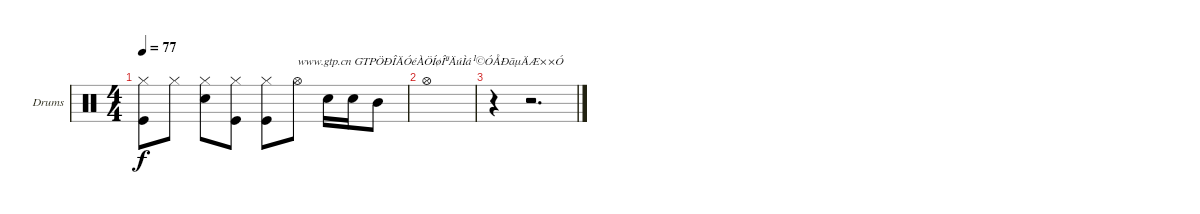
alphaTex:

\bracketExtendMode groupsimilarinstruments
\firstSystemTrackNameOrientation horizontal
\otherSystemsTrackNameOrientation horizontal
\track ("Drumkit" "Drums") {instrument percussion}
\staff {score}
\articulation defaults
\ts (4 4)
\tempo 77
\clef neutral
\ks c
("Hi-Hat (closed)" "Kick (hit)").8{dy f} "Hi-Hat (closed)".8 ("Hi-Hat (closed)" "Snare (hit) 2").8 ("Hi-Hat (closed)" "Kick (hit)").8 ("Hi-Hat (closed)" "Kick (hit)").8 "Hi-Hat (open)".8{txt "www.gtp.cn GTPÖÐÎÄÓéÀÖÍøÎªÄúÌá¹©ÓÅÐãµÄÆ××Ó"} "Snare (hit) 2".16 "Snare (hit) 2".16 "Mid Tom (hit)".8 |
"Hi-Hat (open)".1 |
r.4 r.2{d}
